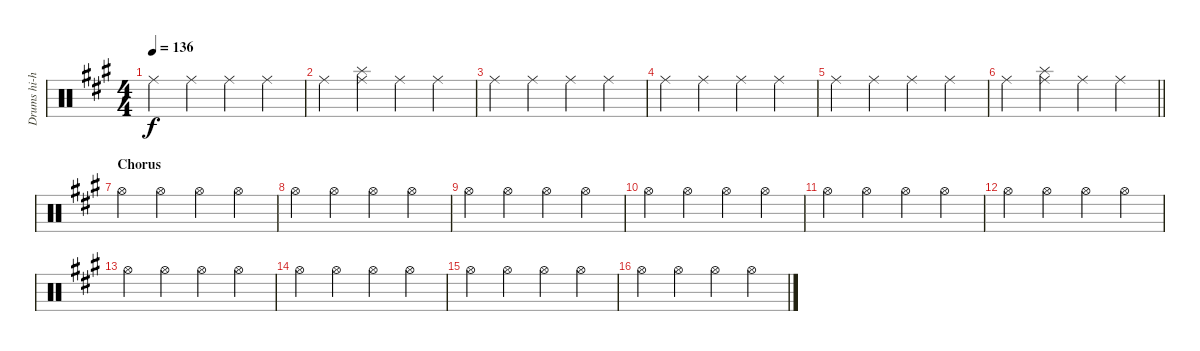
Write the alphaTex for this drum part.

\track ("Drums hi-hat" "Drums hi-h") {instrument percussion}
\staff {score}
\articulation defaults
\ts (4 4)
\tempo 136
\clef neutral
\ks a "Ride (middle)".4{dy f} "Ride (middle)".4 "Ride (middle)".4 "Ride (middle)".4
|
"Ride (middle)".4 ("Splash (hit)" "Ride (middle)").4 "Ride (middle)".4 "Ride (middle)".4 |
"Ride (middle)".4 "Ride (middle)".4 "Ride (middle)".4 "Ride (middle)".4 |
"Ride (middle)".4 "Ride (middle)".4 "Ride (middle)".4 "Ride (middle)".4 |
"Ride (middle)".4 "Ride (middle)".4 "Ride (middle)".4 "Ride (middle)".4 |
\barLineRight lightlight "Ride (middle)".4
("Splash (hit)" "Ride (middle)").4 "Ride (middle)".4 "Ride (middle)".4 |
\section ("" "Chorus")
"Hi-Hat (open)".4 "Hi-Hat (open)".4 "Hi-Hat (open)".4 "Hi-Hat (open)".4 |
"Hi-Hat (open)".4 "Hi-Hat (open)".4 "Hi-Hat (open)".4 "Hi-Hat (open)".4 |
"Hi-Hat (open)".4 "Hi-Hat (open)".4 "Hi-Hat (open)".4 "Hi-Hat (open)".4 |
"Hi-Hat (open)".4 "Hi-Hat (open)".4 "Hi-Hat (open)".4 "Hi-Hat (open)".4 |
"Hi-Hat (open)".4 "Hi-Hat (open)".4 "Hi-Hat (open)".4 "Hi-Hat (open)".4 |
"Hi-Hat (open)".4 "Hi-Hat (open)".4 "Hi-Hat (open)".4 "Hi-Hat (open)".4 |
"Hi-Hat (open)".4 "Hi-Hat (open)".4 "Hi-Hat (open)".4 "Hi-Hat (open)".4 |
"Hi-Hat (open)".4 "Hi-Hat (open)".4 "Hi-Hat (open)".4 "Hi-Hat (open)".4 |
"Hi-Hat (open)".4 "Hi-Hat (open)".4 "Hi-Hat (open)".4 "Hi-Hat (open)".4 |
"Hi-Hat (open)".4 "Hi-Hat (open)".4 "Hi-Hat (open)".4 "Hi-Hat (open)".4
